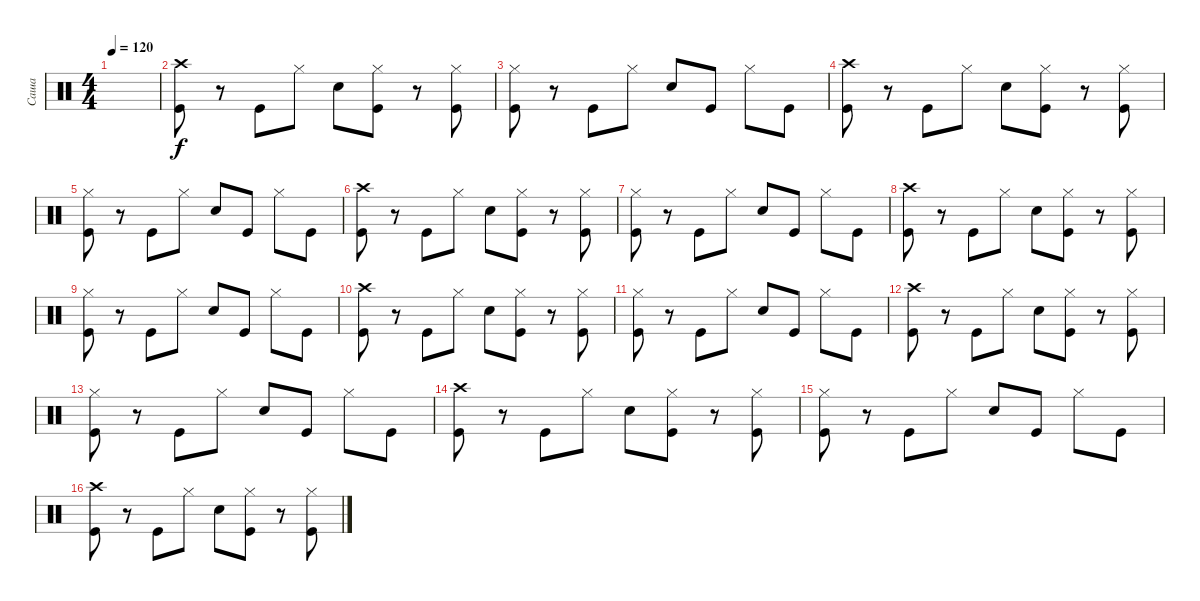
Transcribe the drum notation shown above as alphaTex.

\track ("Саша" "Саша") {instrument percussion}
\staff {score}
\articulation defaults
\ts (4 4)
\tempo 120
\clef neutral
\ks c
|
("Crash high (hit)" "Kick (hit)").8 r.8 "Kick (hit)".8 "Hi-Hat (closed)".8 "Snare (hit) 2".8 ("Hi-Hat (closed)" "Kick (hit)").8 r.8 ("Hi-Hat (closed)" "Kick (hit)").8 |
("Hi-Hat (closed)" "Kick (hit)").8 r.8 "Kick (hit)".8 "Hi-Hat (closed)".8 "Snare (hit) 2".8 "Kick (hit)".8 "Hi-Hat (closed)".8 "Kick (hit)".8 |
("Crash high (hit)" "Kick (hit)").8 r.8 "Kick (hit)".8 "Hi-Hat (closed)".8 "Snare (hit) 2".8 ("Hi-Hat (closed)" "Kick (hit)").8 r.8 ("Hi-Hat (closed)" "Kick (hit)").8 |
("Hi-Hat (closed)" "Kick (hit)").8 r.8 "Kick (hit)".8 "Hi-Hat (closed)".8 "Snare (hit) 2".8 "Kick (hit)".8 "Hi-Hat (closed)".8 "Kick (hit)".8 |
("Crash high (hit)" "Kick (hit)").8 r.8 "Kick (hit)".8 "Hi-Hat (closed)".8 "Snare (hit) 2".8 ("Hi-Hat (closed)" "Kick (hit)").8 r.8 ("Hi-Hat (closed)" "Kick (hit)").8 |
("Hi-Hat (closed)" "Kick (hit)").8 r.8 "Kick (hit)".8 "Hi-Hat (closed)".8 "Snare (hit) 2".8 "Kick (hit)".8 "Hi-Hat (closed)".8 "Kick (hit)".8 |
("Crash high (hit)" "Kick (hit)").8 r.8 "Kick (hit)".8 "Hi-Hat (closed)".8 "Snare (hit) 2".8 ("Hi-Hat (closed)" "Kick (hit)").8 r.8 ("Hi-Hat (closed)" "Kick (hit)").8 |
("Hi-Hat (closed)" "Kick (hit)").8 r.8 "Kick (hit)".8 "Hi-Hat (closed)".8 "Snare (hit) 2".8 "Kick (hit)".8 "Hi-Hat (closed)".8 "Kick (hit)".8 |
("Crash high (hit)" "Kick (hit)").8 r.8 "Kick (hit)".8 "Hi-Hat (closed)".8 "Snare (hit) 2".8 ("Hi-Hat (closed)" "Kick (hit)").8 r.8 ("Hi-Hat (closed)" "Kick (hit)").8 |
("Hi-Hat (closed)" "Kick (hit)").8 r.8 "Kick (hit)".8 "Hi-Hat (closed)".8 "Snare (hit) 2".8 "Kick (hit)".8 "Hi-Hat (closed)".8 "Kick (hit)".8 |
("Crash high (hit)" "Kick (hit)").8 r.8 "Kick (hit)".8 "Hi-Hat (closed)".8 "Snare (hit) 2".8 ("Hi-Hat (closed)" "Kick (hit)").8 r.8 ("Hi-Hat (closed)" "Kick (hit)").8 |
("Hi-Hat (closed)" "Kick (hit)").8 r.8 "Kick (hit)".8 "Hi-Hat (closed)".8 "Snare (hit) 2".8 "Kick (hit)".8 "Hi-Hat (closed)".8 "Kick (hit)".8 |
("Crash high (hit)" "Kick (hit)").8 r.8 "Kick (hit)".8 "Hi-Hat (closed)".8 "Snare (hit) 2".8 ("Hi-Hat (closed)" "Kick (hit)").8 r.8 ("Hi-Hat (closed)" "Kick (hit)").8 |
("Hi-Hat (closed)" "Kick (hit)").8 r.8 "Kick (hit)".8 "Hi-Hat (closed)".8 "Snare (hit) 2".8 "Kick (hit)".8 "Hi-Hat (closed)".8 "Kick (hit)".8 |
("Crash high (hit)" "Kick (hit)").8 r.8 "Kick (hit)".8 "Hi-Hat (closed)".8 "Snare (hit) 2".8 ("Hi-Hat (closed)" "Kick (hit)").8 r.8 ("Hi-Hat (closed)" "Kick (hit)").8
